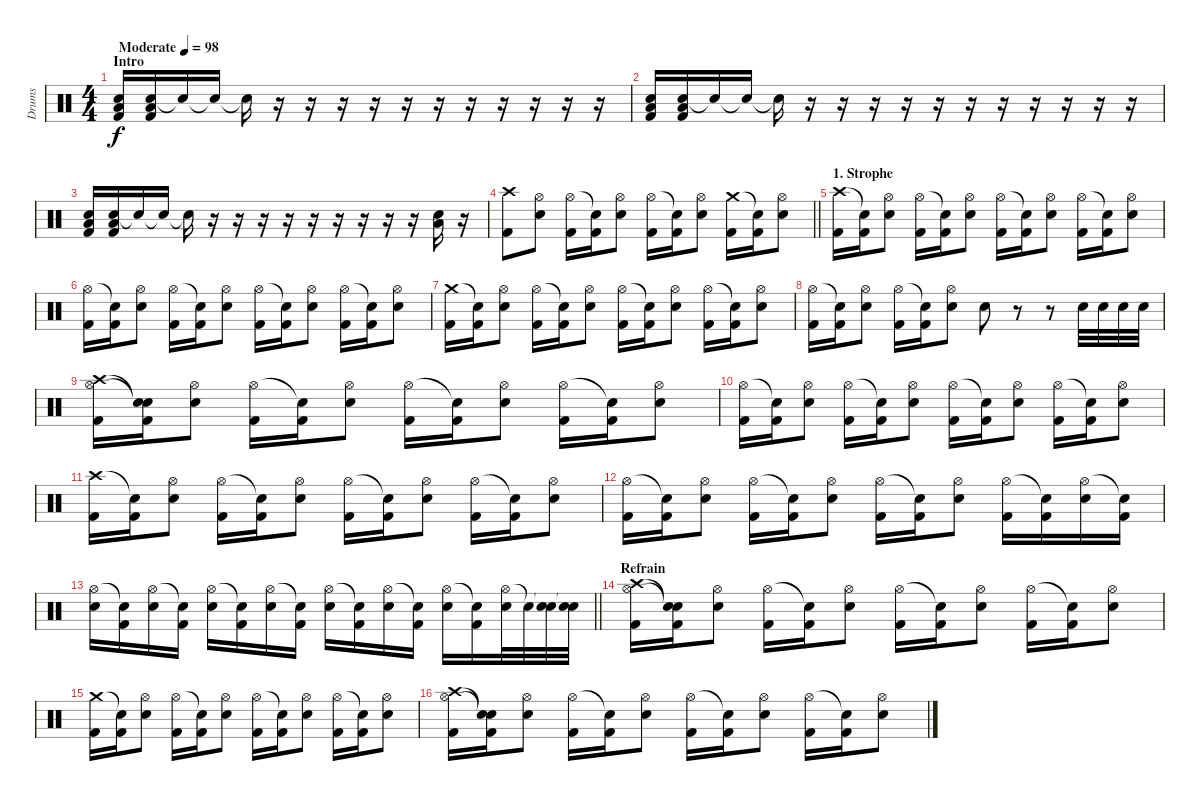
\track ("Drums" "Drums") {instrument percussion}
\staff {score}
\articulation defaults
\ts (4 4)
\section ("" "Intro")
\tempo (98 "Moderate")
\clef neutral
\ks c
("Snare (hit) 2" "Low Floor Tom (hit)" "Kick (hit) 2").16{dy f} ("Snare (hit) 2" "Low Floor Tom (hit)" "Kick (hit) 2").16 "Snare (hit)"{t}.16 "Snare (hit)"{t}.16 "Snare (hit)"{t}.16 r.16 r.16 r.16 r.16 r.16 r.16 r.16 r.16 r.16 r.16 r.16 |
("Snare (hit) 2" "Low Floor Tom (hit)" "Kick (hit) 2").16 ("Snare (hit) 2" "Low Floor Tom (hit)" "Kick (hit) 2").16 "Snare (hit)"{t}.16 "Snare (hit)"{t}.16 "Snare (hit)"{t}.16 r.16 r.16 r.16 r.16 r.16 r.16 r.16 r.16 r.16 r.16 r.16 |
("Snare (hit) 2" "Low Floor Tom (hit)" "Kick (hit) 2").16 ("Snare (hit) 2" "Low Floor Tom (hit)" "Kick (hit) 2").16 "Snare (hit)"{t}.16 "Snare (hit)"{t}.16 "Snare (hit)"{t}.16 r.16 r.16 r.16 r.16 r.16 r.16 r.16 r.16 r.16 ("Low Floor Tom (hit)" "Snare (hit) 2").16 r.16 |
\barLineRight lightlight
("Crash high (hit)" "Kick (hit) 2").8 ("Hi-Hat (open)" "Snare (hit) 2").8 ("Hi-Hat (open)" "Kick (hit) 2").16 ("Snare (hit)"{t} "Kick (hit) 2").16 ("Hi-Hat (open)" "Snare (hit) 2").8 ("Hi-Hat (open)" "Kick (hit) 2").16 ("Snare (hit)"{t} "Kick (hit) 2").16 ("Hi-Hat (open)" "Snare (hit) 2").8 ("Crash medium (hit)" "Kick (hit) 2").16 ("Snare (hit)"{t} "Kick (hit) 2").16 ("Hi-Hat (open)" "Snare (hit) 2").8 |
\section ("" "1. Strophe")
("Crash high (hit)" "Kick (hit) 2").16 ("Snare (hit)"{t} "Kick (hit) 2").16 ("Hi-Hat (open)" "Snare (hit) 2").8 ("Hi-Hat (open)" "Kick (hit) 2").16 ("Snare (hit)"{t} "Kick (hit) 2").16 ("Hi-Hat (open)" "Snare (hit) 2").8 ("Hi-Hat (open)" "Kick (hit) 2").16 ("Snare (hit)"{t} "Kick (hit) 2").16 ("Hi-Hat (open)" "Snare (hit) 2").8 ("Hi-Hat (open)" "Kick (hit) 2").16 ("Snare (hit)"{t} "Kick (hit) 2").16 ("Hi-Hat (open)" "Snare (hit) 2").8 |
("Hi-Hat (open)" "Kick (hit) 2").16 ("Snare (hit)"{t} "Kick (hit) 2").16 ("Hi-Hat (open)" "Snare (hit) 2").8 ("Hi-Hat (open)" "Kick (hit) 2").16 ("Snare (hit)"{t} "Kick (hit) 2").16 ("Hi-Hat (open)" "Snare (hit) 2").8 ("Hi-Hat (open)" "Kick (hit) 2").16 ("Snare (hit)"{t} "Kick (hit) 2").16 ("Hi-Hat (open)" "Snare (hit) 2").8 ("Hi-Hat (open)" "Kick (hit) 2").16 ("Snare (hit)"{t} "Kick (hit) 2").16 ("Hi-Hat (open)" "Snare (hit) 2").8 |
("Crash medium (hit)" "Kick (hit) 2").16 ("Snare (hit)"{t} "Kick (hit) 2").16 ("Hi-Hat (open)" "Snare (hit) 2").8 ("Hi-Hat (open)" "Kick (hit) 2").16 ("Snare (hit)"{t} "Kick (hit) 2").16 ("Hi-Hat (open)" "Snare (hit) 2").8 ("Hi-Hat (open)" "Kick (hit) 2").16 ("Snare (hit)"{t} "Kick (hit) 2").16 ("Hi-Hat (open)" "Snare (hit) 2").8 ("Hi-Hat (open)" "Kick (hit) 2").16 ("Snare (hit)"{t} "Kick (hit) 2").16 ("Hi-Hat (open)" "Snare (hit) 2").8 |
("Hi-Hat (open)" "Kick (hit) 2").16 ("Snare (hit)"{t} "Kick (hit) 2").16 ("Hi-Hat (open)" "Snare (hit) 2").8 ("Hi-Hat (open)" "Kick (hit) 2").16 ("Snare (hit)"{t} "Kick (hit) 2").16 ("Hi-Hat (open)" "Snare (hit) 2").8 "Snare (hit) 2".8 r.8 r.8 "Snare (hit) 2".32 "Snare (hit) 2".32 "Snare (hit) 2".32 "Snare (hit) 2".32 |
("Crash high (hit)" "Hi-Hat (open)" "Kick (hit) 2").16 ("Snare (hit)"{t} "Snare (hit)"{t} "Kick (hit) 2").16 ("Hi-Hat (open)" "Snare (hit) 2").8 ("Hi-Hat (open)" "Kick (hit) 2").16 ("Snare (hit)"{t} "Kick (hit) 2").16 ("Hi-Hat (open)" "Snare (hit) 2").8 ("Hi-Hat (open)" "Kick (hit) 2").16 ("Snare (hit)"{t} "Kick (hit) 2").16 ("Hi-Hat (open)" "Snare (hit) 2").8 ("Hi-Hat (open)" "Kick (hit) 2").16 ("Snare (hit)"{t} "Kick (hit) 2").16 ("Hi-Hat (open)" "Snare (hit) 2").8 |
("Hi-Hat (open)" "Kick (hit) 2").16 ("Snare (hit)"{t} "Kick (hit) 2").16 ("Hi-Hat (open)" "Snare (hit) 2").8 ("Hi-Hat (open)" "Kick (hit) 2").16 ("Snare (hit)"{t} "Kick (hit) 2").16 ("Hi-Hat (open)" "Snare (hit) 2").8 ("Hi-Hat (open)" "Kick (hit) 2").16 ("Snare (hit)"{t} "Kick (hit) 2").16 ("Hi-Hat (open)" "Snare (hit) 2").8 ("Hi-Hat (open)" "Kick (hit) 2").16 ("Snare (hit)"{t} "Kick (hit) 2").16 ("Hi-Hat (open)" "Snare (hit) 2").8 |
("Crash high (hit)" "Kick (hit) 2").16 ("Snare (hit)"{t} "Kick (hit) 2").16 ("Hi-Hat (open)" "Snare (hit) 2").8 ("Hi-Hat (open)" "Kick (hit) 2").16 ("Snare (hit)"{t} "Kick (hit) 2").16 ("Hi-Hat (open)" "Snare (hit) 2").8 ("Hi-Hat (open)" "Kick (hit) 2").16 ("Snare (hit)"{t} "Kick (hit) 2").16 ("Hi-Hat (open)" "Snare (hit) 2").8 ("Hi-Hat (open)" "Kick (hit) 2").16 ("Snare (hit)"{t} "Kick (hit) 2").16 ("Hi-Hat (open)" "Snare (hit) 2").8 |
("Hi-Hat (open)" "Kick (hit) 2").16 ("Snare (hit)"{t} "Kick (hit) 2").16 ("Hi-Hat (open)" "Snare (hit) 2").8 ("Hi-Hat (open)" "Kick (hit) 2").16 ("Snare (hit)"{t} "Kick (hit) 2").16 ("Hi-Hat (open)" "Snare (hit) 2").8 ("Hi-Hat (open)" "Kick (hit) 2").16 ("Snare (hit)"{t} "Kick (hit) 2").16 ("Hi-Hat (open)" "Snare (hit) 2").8 ("Hi-Hat (open)" "Kick (hit) 2").16 ("Snare (hit)"{t} "Kick (hit) 2").16 ("Hi-Hat (open)" "Snare (hit) 2").16 ("Snare (hit)"{t} "Kick (hit) 2").16 |
\barLineRight lightlight
("Hi-Hat (open)" "Snare (hit) 2").16 ("Snare (hit)"{t} "Kick (hit) 2").16 ("Hi-Hat (open)" "Snare (hit) 2").16 ("Snare (hit)"{t} "Kick (hit) 2").16 ("Hi-Hat (open)" "Snare (hit) 2").16 ("Snare (hit)"{t} "Kick (hit) 2").16 ("Hi-Hat (open)" "Snare (hit) 2").16 ("Snare (hit)"{t} "Kick (hit) 2").16 ("Hi-Hat (open)" "Snare (hit) 2").16 ("Snare (hit)"{t} "Kick (hit) 2").16 ("Hi-Hat (open)" "Snare (hit) 2").16 ("Snare (hit)"{t} "Kick (hit) 2").16 ("Hi-Hat (open)" "Snare (hit) 2").16 ("Snare (hit)"{t} "Kick (hit) 2").16 ("Hi-Hat (open)" "Snare (hit) 2").32 "Snare (hit)"{t}.32 ("Snare (hit)"{t} "Snare (hit) 2").32 ("Snare (hit)"{t} "Snare (hit) 2").32 |
\section ("" "Refrain")
("Crash high (hit)" "Hi-Hat (open)" "Kick (hit) 2").16 ("Snare (hit)"{t} "Snare (hit)"{t} "Kick (hit) 2").16 ("Hi-Hat (open)" "Snare (hit) 2").8 ("Hi-Hat (open)" "Kick (hit) 2").16 ("Snare (hit)"{t} "Kick (hit) 2").16 ("Hi-Hat (open)" "Snare (hit) 2").8 ("Hi-Hat (open)" "Kick (hit) 2").16 ("Snare (hit)"{t} "Kick (hit) 2").16 ("Hi-Hat (open)" "Snare (hit) 2").8 ("Hi-Hat (open)" "Kick (hit) 2").16 ("Snare (hit)"{t} "Kick (hit) 2").16 ("Hi-Hat (open)" "Snare (hit) 2").8 |
("Crash medium (hit)" "Kick (hit) 2").16 ("Snare (hit)"{t} "Kick (hit) 2").16 ("Hi-Hat (open)" "Snare (hit) 2").8 ("Hi-Hat (open)" "Kick (hit) 2").16 ("Snare (hit)"{t} "Kick (hit) 2").16 ("Hi-Hat (open)" "Snare (hit) 2").8 ("Hi-Hat (open)" "Kick (hit) 2").16 ("Snare (hit)"{t} "Kick (hit) 2").16 ("Hi-Hat (open)" "Snare (hit) 2").8 ("Hi-Hat (open)" "Kick (hit) 2").16 ("Snare (hit)"{t} "Kick (hit) 2").16 ("Hi-Hat (open)" "Snare (hit) 2").8 |
("Crash high (hit)" "Hi-Hat (open)" "Kick (hit) 2").16 ("Snare (hit)"{t} "Snare (hit)"{t} "Kick (hit) 2").16 ("Hi-Hat (open)" "Snare (hit) 2").8 ("Hi-Hat (open)" "Kick (hit) 2").16 ("Snare (hit)"{t} "Kick (hit) 2").16 ("Hi-Hat (open)" "Snare (hit) 2").8 ("Hi-Hat (open)" "Kick (hit) 2").16 ("Snare (hit)"{t} "Kick (hit) 2").16 ("Hi-Hat (open)" "Snare (hit) 2").8 ("Hi-Hat (open)" "Kick (hit) 2").16 ("Snare (hit)"{t} "Kick (hit) 2").16 ("Hi-Hat (open)" "Snare (hit) 2").8
